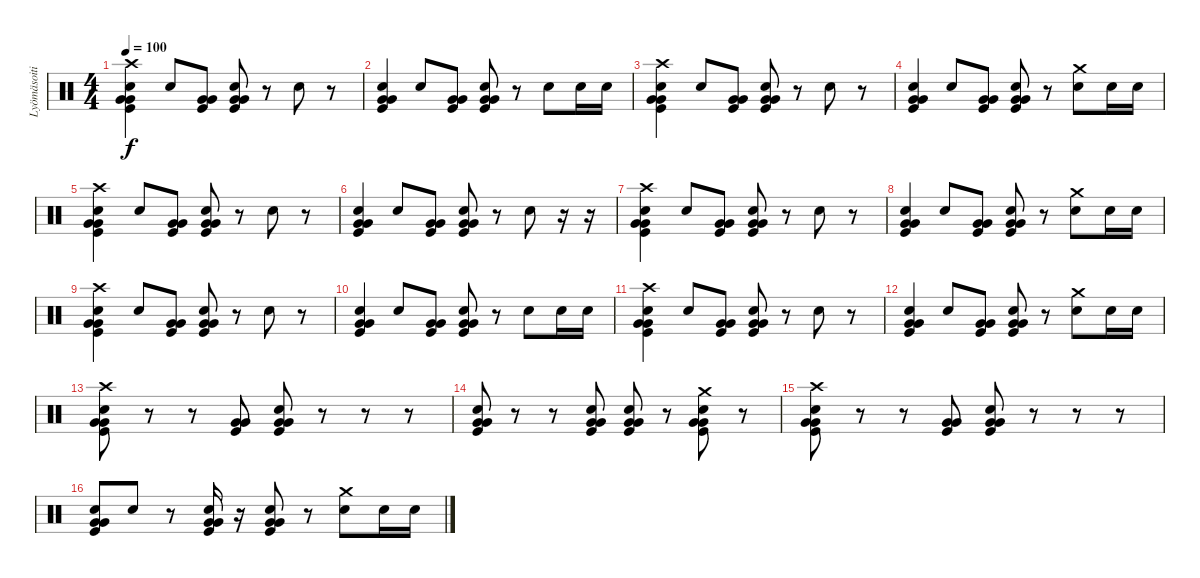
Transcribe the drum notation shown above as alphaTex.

\track ("Lyömäsoitin" "Lyömäsoiti") {instrument percussion}
\staff {score}
\articulation defaults
\ts (4 4)
\tempo 100
\clef neutral
\ks c
("Crash high (hit)" "Snare (hit) 2" "Very Low Tom (hit)" "Very Low Tom (hit)" "Kick (hit)").4{dy f} "Snare (hit) 2".8 ("Very Low Tom (hit)" "Very Low Tom (hit)" "Kick (hit)").8 ("Snare (hit) 2" "Very Low Tom (hit)" "Very Low Tom (hit)" "Kick (hit)").8 r.8 "Snare (hit) 2".8 r.8 |
("Snare (hit) 2" "Very Low Tom (hit)" "Very Low Tom (hit)" "Kick (hit)").4 "Snare (hit) 2".8 ("Very Low Tom (hit)" "Very Low Tom (hit)" "Kick (hit)").8 ("Snare (hit) 2" "Very Low Tom (hit)" "Very Low Tom (hit)" "Kick (hit)").8 r.8 "Snare (hit) 2".8 "Snare (hit) 2".16 "Snare (hit) 2".16 |
("Crash high (hit)" "Snare (hit) 2" "Very Low Tom (hit)" "Very Low Tom (hit)" "Kick (hit)").4 "Snare (hit) 2".8 ("Very Low Tom (hit)" "Very Low Tom (hit)" "Kick (hit)").8 ("Snare (hit) 2" "Very Low Tom (hit)" "Very Low Tom (hit)" "Kick (hit)").8 r.8 "Snare (hit) 2".8 r.8 |
("Snare (hit) 2" "Very Low Tom (hit)" "Very Low Tom (hit)" "Kick (hit)").4 "Snare (hit) 2".8 ("Very Low Tom (hit)" "Very Low Tom (hit)" "Kick (hit)").8 ("Snare (hit) 2" "Very Low Tom (hit)" "Very Low Tom (hit)" "Kick (hit)").8 r.8 ("Crash medium (hit)" "Snare (hit) 2").8 "Snare (hit) 2".16 "Snare (hit) 2".16 |
("Crash high (hit)" "Snare (hit) 2" "Very Low Tom (hit)" "Very Low Tom (hit)" "Kick (hit)").4 "Snare (hit) 2".8 ("Very Low Tom (hit)" "Very Low Tom (hit)" "Kick (hit)").8 ("Snare (hit) 2" "Very Low Tom (hit)" "Very Low Tom (hit)" "Kick (hit)").8 r.8 "Snare (hit) 2".8 r.8 |
("Snare (hit) 2" "Very Low Tom (hit)" "Very Low Tom (hit)" "Kick (hit)").4 "Snare (hit) 2".8 ("Very Low Tom (hit)" "Very Low Tom (hit)" "Kick (hit)").8 ("Snare (hit) 2" "Very Low Tom (hit)" "Very Low Tom (hit)" "Kick (hit)").8 r.8 "Snare (hit) 2".8 r.16 r.16 |
("Crash high (hit)" "Snare (hit) 2" "Very Low Tom (hit)" "Very Low Tom (hit)" "Kick (hit)").4 "Snare (hit) 2".8 ("Very Low Tom (hit)" "Very Low Tom (hit)" "Kick (hit)").8 ("Snare (hit) 2" "Very Low Tom (hit)" "Very Low Tom (hit)" "Kick (hit)").8 r.8 "Snare (hit) 2".8 r.8 |
("Snare (hit) 2" "Very Low Tom (hit)" "Very Low Tom (hit)" "Kick (hit)").4 "Snare (hit) 2".8 ("Very Low Tom (hit)" "Very Low Tom (hit)" "Kick (hit)").8 ("Snare (hit) 2" "Very Low Tom (hit)" "Very Low Tom (hit)" "Kick (hit)").8 r.8 ("Crash medium (hit)" "Snare (hit) 2").8 "Snare (hit) 2".16 "Snare (hit) 2".16 |
("Crash high (hit)" "Snare (hit) 2" "Very Low Tom (hit)" "Very Low Tom (hit)" "Kick (hit)").4 "Snare (hit) 2".8 ("Very Low Tom (hit)" "Very Low Tom (hit)" "Kick (hit)").8 ("Snare (hit) 2" "Very Low Tom (hit)" "Very Low Tom (hit)" "Kick (hit)").8 r.8 "Snare (hit) 2".8 r.8 |
("Snare (hit) 2" "Very Low Tom (hit)" "Very Low Tom (hit)" "Kick (hit)").4 "Snare (hit) 2".8 ("Very Low Tom (hit)" "Very Low Tom (hit)" "Kick (hit)").8 ("Snare (hit) 2" "Very Low Tom (hit)" "Very Low Tom (hit)" "Kick (hit)").8 r.8 "Snare (hit) 2".8 "Snare (hit) 2".16 "Snare (hit) 2".16 |
("Crash high (hit)" "Snare (hit) 2" "Very Low Tom (hit)" "Very Low Tom (hit)" "Kick (hit)").4 "Snare (hit) 2".8 ("Very Low Tom (hit)" "Very Low Tom (hit)" "Kick (hit)").8 ("Snare (hit) 2" "Very Low Tom (hit)" "Very Low Tom (hit)" "Kick (hit)").8 r.8 "Snare (hit) 2".8 r.8 |
("Snare (hit) 2" "Very Low Tom (hit)" "Very Low Tom (hit)" "Kick (hit)").4 "Snare (hit) 2".8 ("Very Low Tom (hit)" "Very Low Tom (hit)" "Kick (hit)").8 ("Snare (hit) 2" "Very Low Tom (hit)" "Very Low Tom (hit)" "Kick (hit)").8 r.8 ("Crash medium (hit)" "Snare (hit) 2").8 "Snare (hit) 2".16 "Snare (hit) 2".16 |
("Crash high (hit)" "Snare (hit) 2" "Very Low Tom (hit)" "Very Low Tom (hit)" "Kick (hit)").8 r.8 r.8 ("Very Low Tom (hit)" "Very Low Tom (hit)" "Kick (hit)").8 ("Snare (hit) 2" "Very Low Tom (hit)" "Very Low Tom (hit)" "Kick (hit)").8 r.8 r.8 r.8 |
("Snare (hit) 2" "Very Low Tom (hit)" "Very Low Tom (hit)" "Kick (hit)").8 r.8 r.8 ("Snare (hit) 2" "Very Low Tom (hit)" "Very Low Tom (hit)" "Kick (hit)").8 ("Snare (hit) 2" "Very Low Tom (hit)" "Very Low Tom (hit)" "Kick (hit)").8 r.8 ("Crash medium (hit)" "Snare (hit) 2" "Very Low Tom (hit)" "Very Low Tom (hit)" "Kick (hit)").8 r.8 |
("Crash high (hit)" "Snare (hit) 2" "Very Low Tom (hit)" "Very Low Tom (hit)" "Kick (hit)").8 r.8 r.8 ("Very Low Tom (hit)" "Very Low Tom (hit)" "Kick (hit)").8 ("Snare (hit) 2" "Very Low Tom (hit)" "Very Low Tom (hit)" "Kick (hit)").8 r.8 r.8 r.8 |
("Snare (hit) 2" "Very Low Tom (hit)" "Very Low Tom (hit)" "Kick (hit)").8 "Snare (hit) 2".8 r.8 ("Snare (hit) 2" "Very Low Tom (hit)" "Very Low Tom (hit)" "Kick (hit)").16 r.16 ("Snare (hit) 2" "Very Low Tom (hit)" "Very Low Tom (hit)" "Kick (hit)").8 r.8 ("Crash medium (hit)" "Snare (hit) 2").8 "Snare (hit) 2".16 "Snare (hit) 2".16
